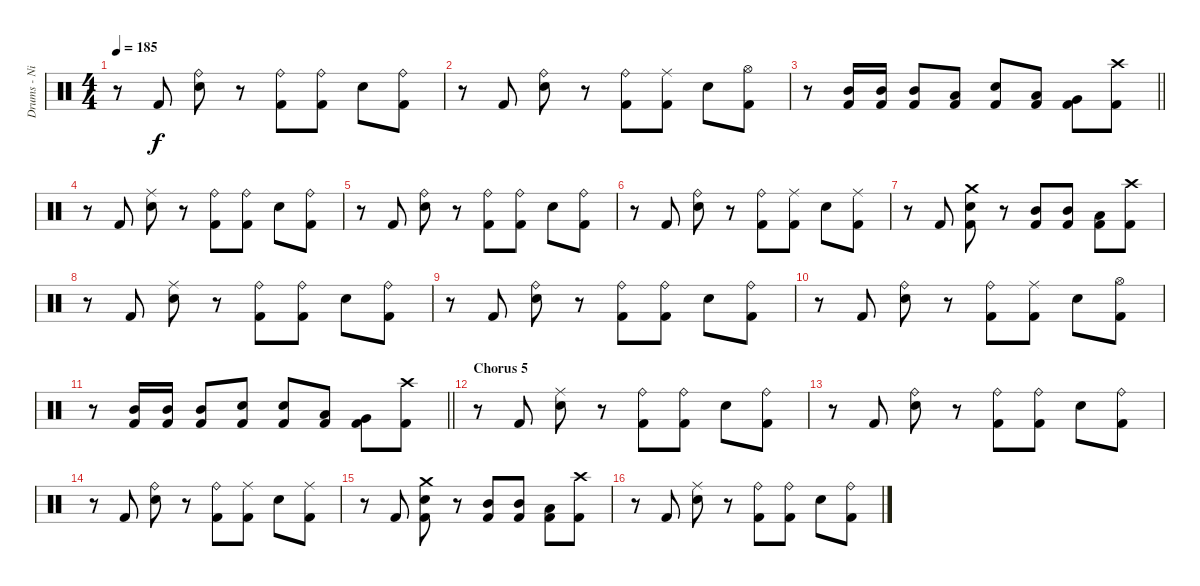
\track ("Drums - Nicko" "Drums - Ni") {instrument percussion}
\staff {score}
\articulation defaults
\ts (4 4)
\tempo 185
\clef neutral
\ks c
r.8{dy f} "Kick (hit) 2".8 ("Ride (bell)" "Snare (hit) 2").8 r.8 ("Ride (bell)" "Kick (hit) 2").8 ("Ride (bell)" "Kick (hit) 2").8 "Snare (hit) 2".8 ("Ride (bell)" "Kick (hit) 2").8 |
r.8 "Kick (hit) 2".8 ("Ride (bell)" "Snare (hit) 2").8 r.8 ("Ride (bell)" "Kick (hit) 2").8 ("Ride (middle)" "Kick (hit) 2").8 "Snare (hit) 2".8 ("Hi-Hat (open)" "Kick (hit) 2").8 |
\barLineRight lightlight
r.8 ("Mid Tom (hit)" "Kick (hit) 2").16 ("Mid Tom (hit)" "Kick (hit) 2").16 ("Mid Tom (hit)" "Kick (hit) 2").8 ("Low Tom (hit)" "Kick (hit) 2").8 ("Snare (hit) 2" "Kick (hit) 2").8 ("Low Tom (hit)" "Kick (hit) 2").8 ("Very Low Tom (hit)" "Kick (hit) 2").8 ("Crash high (hit)" "Kick (hit) 2").8 |
\section ("" "")
r.8 "Kick (hit) 2".8 ("Ride (middle)" "Snare (hit) 2").8 r.8 ("Ride (bell)" "Kick (hit) 2").8 ("Ride (bell)" "Kick (hit) 2").8 "Snare (hit) 2".8 ("Ride (bell)" "Kick (hit) 2").8 |
r.8 "Kick (hit) 2".8 ("Ride (bell)" "Snare (hit) 2").8 r.8 ("Ride (bell)" "Kick (hit) 2").8 ("Ride (bell)" "Kick (hit) 2").8 "Snare (hit) 2".8 ("Ride (bell)" "Kick (hit) 2").8 |
r.8 "Kick (hit) 2".8 ("Ride (bell)" "Snare (hit) 2").8 r.8 ("Ride (bell)" "Kick (hit) 2").8 ("Ride (middle)" "Kick (hit) 2").8 "Snare (hit) 2".8 ("Ride (middle)" "Kick (hit) 2").8 |
r.8 "Kick (hit) 2".8 ("Crash medium (hit)" "Snare (hit) 2" "Kick (hit) 2").8 r.8 ("Mid Tom (hit)" "Kick (hit) 2").8 ("Mid Tom (hit)" "Kick (hit) 2").8 ("Low Tom (hit)" "Kick (hit) 2").8 ("Crash high (hit)" "Kick (hit) 2").8 |
r.8 "Kick (hit) 2".8 ("Ride (middle)" "Snare (hit) 2").8 r.8 ("Ride (bell)" "Kick (hit) 2").8 ("Ride (bell)" "Kick (hit) 2").8 "Snare (hit) 2".8 ("Ride (bell)" "Kick (hit) 2").8 |
r.8 "Kick (hit) 2".8 ("Ride (bell)" "Snare (hit) 2").8 r.8 ("Ride (bell)" "Kick (hit) 2").8 ("Ride (bell)" "Kick (hit) 2").8 "Snare (hit) 2".8 ("Ride (bell)" "Kick (hit) 2").8 |
r.8 "Kick (hit) 2".8 ("Ride (bell)" "Snare (hit) 2").8 r.8 ("Ride (bell)" "Kick (hit) 2").8 ("Ride (middle)" "Kick (hit) 2").8 "Snare (hit) 2".8 ("Hi-Hat (open)" "Kick (hit) 2").8 |
\barLineRight lightlight
r.8 ("Mid Tom (hit)" "Kick (hit) 2").16 ("Mid Tom (hit)" "Kick (hit) 2").16 ("Mid Tom (hit)" "Kick (hit) 2").8 ("Snare (hit) 2" "Kick (hit) 2").8 ("Snare (hit) 2" "Kick (hit) 2").8 ("Low Tom (hit)" "Kick (hit) 2").8 ("Very Low Tom (hit)" "Kick (hit) 2").8 ("Crash high (hit)" "Kick (hit) 2").8 |
\section ("" "Chorus 5")
r.8 "Kick (hit) 2".8 ("Ride (middle)" "Snare (hit) 2").8 r.8 ("Ride (bell)" "Kick (hit) 2").8 ("Ride (bell)" "Kick (hit) 2").8 "Snare (hit) 2".8 ("Ride (bell)" "Kick (hit) 2").8 |
r.8 "Kick (hit) 2".8 ("Ride (bell)" "Snare (hit) 2").8 r.8 ("Ride (bell)" "Kick (hit) 2").8 ("Ride (bell)" "Kick (hit) 2").8 "Snare (hit) 2".8 ("Ride (bell)" "Kick (hit) 2").8 |
r.8 "Kick (hit) 2".8 ("Ride (bell)" "Snare (hit) 2").8 r.8 ("Ride (bell)" "Kick (hit) 2").8 ("Ride (middle)" "Kick (hit) 2").8 "Snare (hit) 2".8 ("Ride (middle)" "Kick (hit) 2").8 |
r.8 "Kick (hit) 2".8 ("Crash medium (hit)" "Snare (hit) 2" "Kick (hit) 2").8 r.8 ("Mid Tom (hit)" "Kick (hit) 2").8 ("Mid Tom (hit)" "Kick (hit) 2").8 ("Low Tom (hit)" "Kick (hit) 2").8 ("Crash high (hit)" "Kick (hit) 2").8 |
r.8 "Kick (hit) 2".8 ("Ride (middle)" "Snare (hit) 2").8 r.8 ("Ride (bell)" "Kick (hit) 2").8 ("Ride (bell)" "Kick (hit) 2").8 "Snare (hit) 2".8 ("Ride (bell)" "Kick (hit) 2").8
